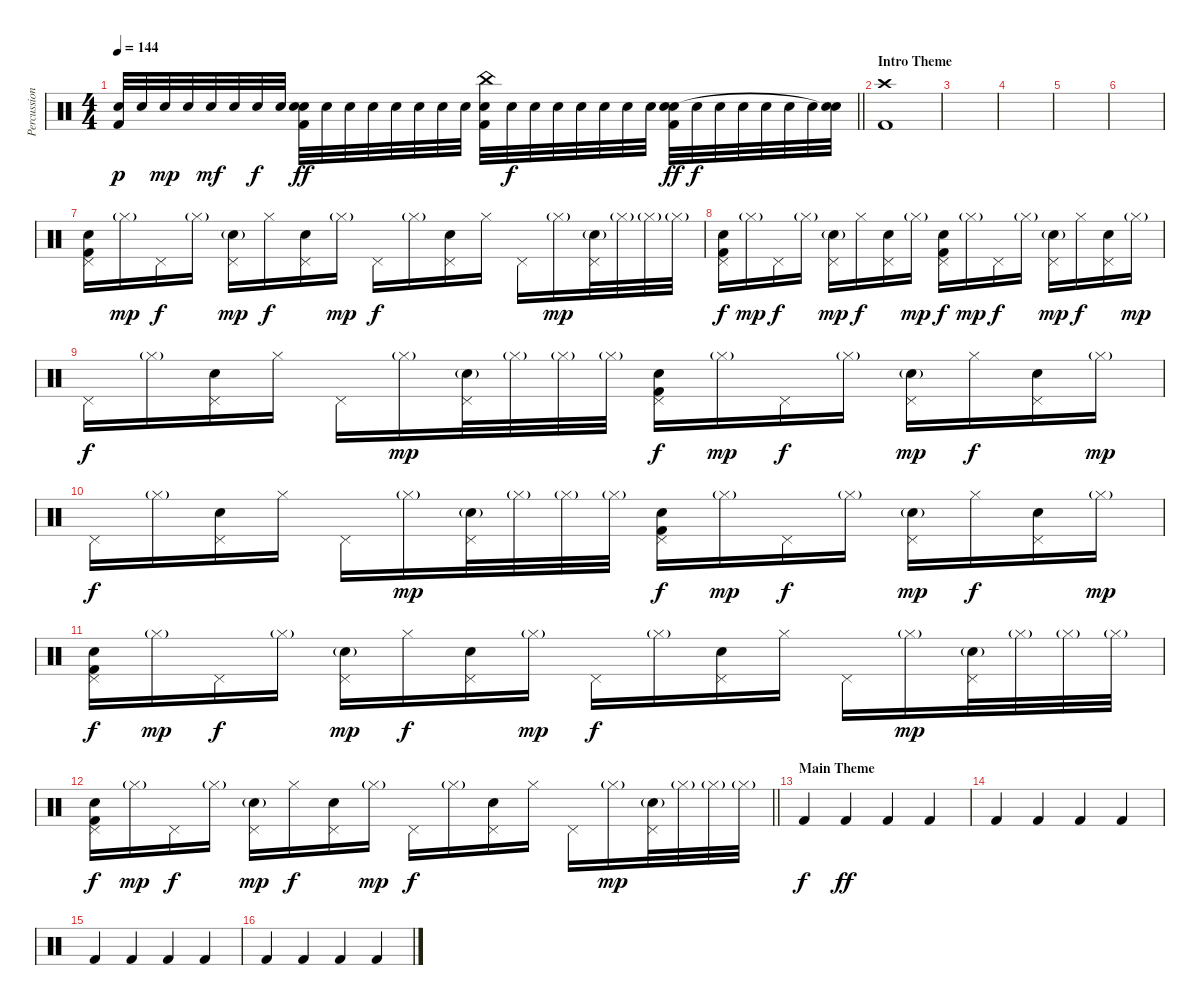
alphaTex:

\track ("Percussion" "Percussion") {instrument percussion}
\staff {score}
\articulation defaults
\ts (4 4)
\tempo 144
\clef neutral
\barLineRight lightlight
\ks c
("Snare (hit) 2" "Kick (hit) 2").32{dy p} "Snare (hit) 2".32 "Snare (hit) 2".32{dy mp} "Snare (hit) 2".32 "Snare (hit) 2".32{dy mf} "Snare (hit) 2".32 "Snare (hit) 2".32{dy f} "Snare (hit) 2".32 ("Snare (hit) 2" "Electric Snare (hit)" "Kick (hit) 2").32{dy ff} "Snare (hit) 2".32 "Snare (hit) 2".32 "Snare (hit) 2".32 "Snare (hit) 2".32 "Snare (hit) 2".32 "Snare (hit) 2".32 "Snare (hit) 2".32 ("Snare (hit) 2" "China (hit)" "Kick (hit) 2").32 "Snare (hit) 2".32{dy f} "Snare (hit) 2".32 "Snare (hit) 2".32 "Snare (hit) 2".32 "Snare (hit) 2".32 "Snare (hit) 2".32 "Snare (hit) 2".32 ("Snare (hit) 2" "Electric Snare (hit)" "Kick (hit) 2").32{dy ff} "Snare (hit) 2".32{dy f} "Snare (hit) 2".32 "Snare (hit) 2".32 "Snare (hit) 2".32 "Snare (hit) 2".32 "Snare (hit) 2".32 ("Snare (hit) 2" "Snare (hit)"{t}).32 |
\section ("" "Intro Theme")
("Crash high (hit)" "Kick (hit) 2").1 |
|
|
|
|
("Pedal Hi-Hat (hit)" "Snare (hit) 2" "Kick (hit) 2").16 "Hi-Hat (closed)"{g}.16{dy mp} "Pedal Hi-Hat (hit)".16{dy f} "Hi-Hat (closed)"{g}.16 ("Pedal Hi-Hat (hit)" "Snare (hit) 2"{g}).16{dy mp} "Hi-Hat (closed)".16{dy f} ("Pedal Hi-Hat (hit)" "Snare (hit) 2").16 "Hi-Hat (closed)"{g}.16{dy mp} "Pedal Hi-Hat (hit)".16{dy f} "Hi-Hat (closed)"{g}.16 ("Pedal Hi-Hat (hit)" "Snare (hit) 2").16 "Hi-Hat (closed)".16 "Pedal Hi-Hat (hit)".16 "Hi-Hat (closed)"{g}.16{dy mp} ("Pedal Hi-Hat (hit)" "Snare (hit) 2"{g}).32 "Hi-Hat (closed)"{g}.32 "Hi-Hat (closed)"{g}.32 "Hi-Hat (closed)"{g}.32 |
("Pedal Hi-Hat (hit)" "Snare (hit) 2" "Kick (hit) 2").16{dy f} "Hi-Hat (closed)"{g}.16{dy mp} "Pedal Hi-Hat (hit)".16{dy f} "Hi-Hat (closed)"{g}.16 ("Pedal Hi-Hat (hit)" "Snare (hit) 2"{g}).16{dy mp} "Hi-Hat (closed)".16{dy f} ("Pedal Hi-Hat (hit)" "Snare (hit) 2").16 "Hi-Hat (closed)"{g}.16{dy mp} ("Pedal Hi-Hat (hit)" "Snare (hit) 2" "Kick (hit) 2").16{dy f} "Hi-Hat (closed)"{g}.16{dy mp} "Pedal Hi-Hat (hit)".16{dy f} "Hi-Hat (closed)"{g}.16 ("Pedal Hi-Hat (hit)" "Snare (hit) 2"{g}).16{dy mp} "Hi-Hat (closed)".16{dy f} ("Pedal Hi-Hat (hit)" "Snare (hit) 2").16 "Hi-Hat (closed)"{g}.16{dy mp} |
"Pedal Hi-Hat (hit)".16{dy f} "Hi-Hat (closed)"{g}.16 ("Pedal Hi-Hat (hit)" "Snare (hit) 2").16 "Hi-Hat (closed)".16 "Pedal Hi-Hat (hit)".16 "Hi-Hat (closed)"{g}.16{dy mp} ("Pedal Hi-Hat (hit)" "Snare (hit) 2"{g}).32 "Hi-Hat (closed)"{g}.32 "Hi-Hat (closed)"{g}.32 "Hi-Hat (closed)"{g}.32 ("Pedal Hi-Hat (hit)" "Snare (hit) 2" "Kick (hit) 2").16{dy f} "Hi-Hat (closed)"{g}.16{dy mp} "Pedal Hi-Hat (hit)".16{dy f} "Hi-Hat (closed)"{g}.16 ("Pedal Hi-Hat (hit)" "Snare (hit) 2"{g}).16{dy mp} "Hi-Hat (closed)".16{dy f} ("Pedal Hi-Hat (hit)" "Snare (hit) 2").16 "Hi-Hat (closed)"{g}.16{dy mp} |
"Pedal Hi-Hat (hit)".16{dy f} "Hi-Hat (closed)"{g}.16 ("Pedal Hi-Hat (hit)" "Snare (hit) 2").16 "Hi-Hat (closed)".16 "Pedal Hi-Hat (hit)".16 "Hi-Hat (closed)"{g}.16{dy mp} ("Pedal Hi-Hat (hit)" "Snare (hit) 2"{g}).32 "Hi-Hat (closed)"{g}.32 "Hi-Hat (closed)"{g}.32 "Hi-Hat (closed)"{g}.32 ("Pedal Hi-Hat (hit)" "Snare (hit) 2" "Kick (hit) 2").16{dy f} "Hi-Hat (closed)"{g}.16{dy mp} "Pedal Hi-Hat (hit)".16{dy f} "Hi-Hat (closed)"{g}.16 ("Pedal Hi-Hat (hit)" "Snare (hit) 2"{g}).16{dy mp} "Hi-Hat (closed)".16{dy f} ("Pedal Hi-Hat (hit)" "Snare (hit) 2").16 "Hi-Hat (closed)"{g}.16{dy mp} |
("Pedal Hi-Hat (hit)" "Snare (hit) 2" "Kick (hit) 2").16{dy f} "Hi-Hat (closed)"{g}.16{dy mp} "Pedal Hi-Hat (hit)".16{dy f} "Hi-Hat (closed)"{g}.16 ("Pedal Hi-Hat (hit)" "Snare (hit) 2"{g}).16{dy mp} "Hi-Hat (closed)".16{dy f} ("Pedal Hi-Hat (hit)" "Snare (hit) 2").16 "Hi-Hat (closed)"{g}.16{dy mp} "Pedal Hi-Hat (hit)".16{dy f} "Hi-Hat (closed)"{g}.16 ("Pedal Hi-Hat (hit)" "Snare (hit) 2").16 "Hi-Hat (closed)".16 "Pedal Hi-Hat (hit)".16 "Hi-Hat (closed)"{g}.16{dy mp} ("Pedal Hi-Hat (hit)" "Snare (hit) 2"{g}).32 "Hi-Hat (closed)"{g}.32 "Hi-Hat (closed)"{g}.32 "Hi-Hat (closed)"{g}.32 |
\barLineRight lightlight
("Pedal Hi-Hat (hit)" "Snare (hit) 2" "Kick (hit) 2").16{dy f volume 4} "Hi-Hat (closed)"{g}.16{dy mp} "Pedal Hi-Hat (hit)".16{dy f} "Hi-Hat (closed)"{g}.16 ("Pedal Hi-Hat (hit)" "Snare (hit) 2"{g}).16{dy mp} "Hi-Hat (closed)".16{dy f} ("Pedal Hi-Hat (hit)" "Snare (hit) 2").16 "Hi-Hat (closed)"{g}.16{dy mp} "Pedal Hi-Hat (hit)".16{dy f} "Hi-Hat (closed)"{g}.16 ("Pedal Hi-Hat (hit)" "Snare (hit) 2").16 "Hi-Hat (closed)".16 "Pedal Hi-Hat (hit)".16 "Hi-Hat (closed)"{g}.16{dy mp} ("Pedal Hi-Hat (hit)" "Snare (hit) 2"{g}).32 "Hi-Hat (closed)"{g}.32 "Hi-Hat (closed)"{g}.32 "Hi-Hat (closed)"{g}.32 |
\section ("" "Main Theme")
"Kick (hit) 2".4{dy f volume 13} "Kick (hit) 2".4{dy ff} "Kick (hit) 2".4 "Kick (hit) 2".4 |
"Kick (hit) 2".4 "Kick (hit) 2".4 "Kick (hit) 2".4 "Kick (hit) 2".4 |
"Kick (hit) 2".4 "Kick (hit) 2".4 "Kick (hit) 2".4 "Kick (hit) 2".4 |
"Kick (hit) 2".4 "Kick (hit) 2".4 "Kick (hit) 2".4 "Kick (hit) 2".4
